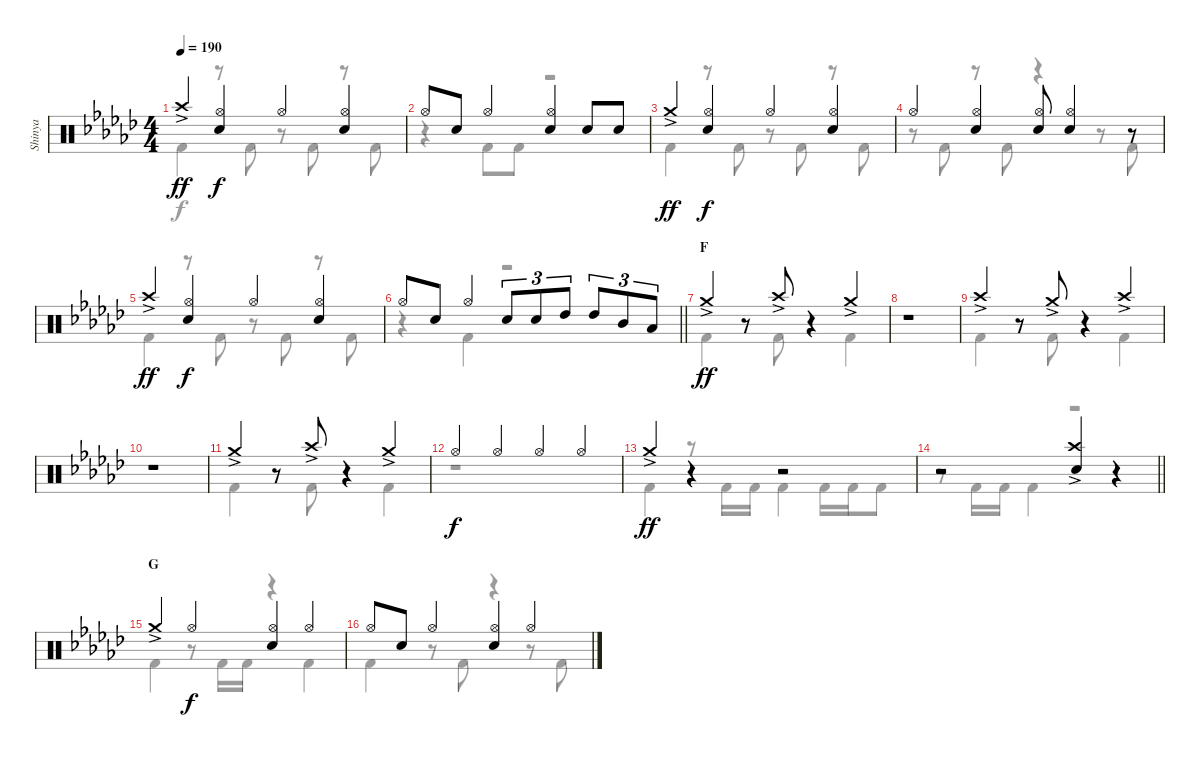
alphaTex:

\track ("Shinya" "Shinya") {instrument percussion}
\staff {score}
\articulation defaults
\voice
\ts (4 4)
\tempo 190
\clef neutral
\ks ebminor "Crash high (hit)"{ac}.4{dy ff}
("Hi-Hat (open)" "Snare (hit) 2").4{dy f} "Hi-Hat (open)".4 ("Hi-Hat (open)" "Snare (hit) 2").4 |
"Hi-Hat (open)".8 "Snare (hit) 2".8 "Hi-Hat (open)".4 ("Hi-Hat (open)" "Snare (hit) 2").4 "Snare (hit) 2".8 "Snare (hit) 2".8 |
"Crash medium (hit)"{ac}.4{dy ff} ("Hi-Hat (open)" "Snare (hit) 2").4{dy f} "Hi-Hat (open)".4 ("Hi-Hat (open)" "Snare (hit) 2").4 |
"Hi-Hat (open)".4 ("Hi-Hat (open)" "Snare (hit) 2").4 ("Hi-Hat (open)" "Snare (hit) 2").8 ("Hi-Hat (open)" "Snare (hit) 2").4 r.8 |
"Crash high (hit)"{ac}.4{dy ff} ("Hi-Hat (open)" "Snare (hit) 2").4{dy f} "Hi-Hat (open)".4 ("Hi-Hat (open)" "Snare (hit) 2").4 |
\barLineRight lightlight "Hi-Hat (open)".8 "Snare (hit) 2".8 "Hi-Hat (open)".4 "Snare (hit) 2".8{tu (3 2)} "Snare (hit) 2".8{tu (3 2)} "High Tom (hit)".8{tu (3 2)} "High Tom (hit)".8{tu (3 2)} "Mid Tom (hit)".8{tu (3 2)} "Low Tom (hit)".8{tu (3 2)}
|
\section ("" "F")
"Crash medium (hit)"{ac}.4{dy ff} r.8 "Crash high (hit)"{ac}.8 r.4 "Crash medium (hit)"{ac}.4 |
r.1 |
"Crash high (hit)"{ac}.4 r.8 "Crash medium (hit)"{ac}.8 r.4 "Crash high (hit)"{ac}.4 |
r.1 |
"Crash medium (hit)"{ac}.4 r.8 "Crash high (hit)"{ac}.8 r.4 "Crash medium (hit)"{ac}.4 |
"Hi-Hat (open)".4{dy f} "Hi-Hat (open)".4 "Hi-Hat (open)".4 "Hi-Hat (open)".4 |
"Crash medium (hit)"{ac}.4{dy ff} r.4 r.2 |
\barLineRight lightlight
r.2 ("Crash high (hit)"{ac} "Snare (hit) 2").4 r.4 |
\section ("" "G")
"Crash medium (hit)"{ac}.4 "Hi-Hat (open)".4{dy f} ("Hi-Hat (open)" "Snare (hit) 2").4 "Hi-Hat (open)".4 |
"Hi-Hat (open)".8 "Snare (hit) 2".8 "Hi-Hat (open)".4 ("Hi-Hat (open)" "Snare (hit) 2").4 "Hi-Hat (open)".4
\voice
\clef neutral
\ottava regular
\simile none
\ks ebminor "Kick (hit) 2".4{dy f}
r.8 "Kick (hit) 2".8 r.8 "Kick (hit) 2".8 r.8 "Kick (hit) 2".8 |
r.4 "Kick (hit) 2".8 "Kick (hit) 2".8 r.2 |
"Kick (hit) 2".4 r.8 "Kick (hit) 2".8 r.8 "Kick (hit) 2".8 r.8 "Kick (hit) 2".8 |
r.8 "Kick (hit) 2".8 r.8 "Kick (hit) 2".8 r.4 r.8 "Kick (hit) 2".8 |
"Kick (hit) 2".4 r.8 "Kick (hit) 2".8 r.8 "Kick (hit) 2".8 r.8 "Kick (hit) 2".8 |
\barLineRight lightlight
r.4 "Kick (hit) 2".4 r.2 |
"Kick (hit) 2".4 r.8 "Kick (hit) 2".8 r.4 "Kick (hit) 2".4 |
r.1 |
"Kick (hit) 2".4 r.8 "Kick (hit) 2".8 r.4 "Kick (hit) 2".4 |
r.1 |
"Kick (hit) 2".4 r.8 "Kick (hit) 2".8 r.4 "Kick (hit) 2".4 |
r.1 |
"Kick (hit) 2".4 r.8 "Kick (hit) 2".16 "Kick (hit) 2".16 "Kick (hit) 2".4 "Kick (hit) 2".16 "Kick (hit) 2".16 "Kick (hit) 2".8 |
\barLineRight lightlight
r.8 "Kick (hit) 2".16 "Kick (hit) 2".16 "Kick (hit) 2".4 r.2 |
"Kick (hit) 2".4 r.8 "Kick (hit) 2".16 "Kick (hit) 2".16 r.4 "Kick (hit) 2".4 |
"Kick (hit) 2".4 r.8 "Kick (hit) 2".8 r.4 r.8 "Kick (hit) 2".8
